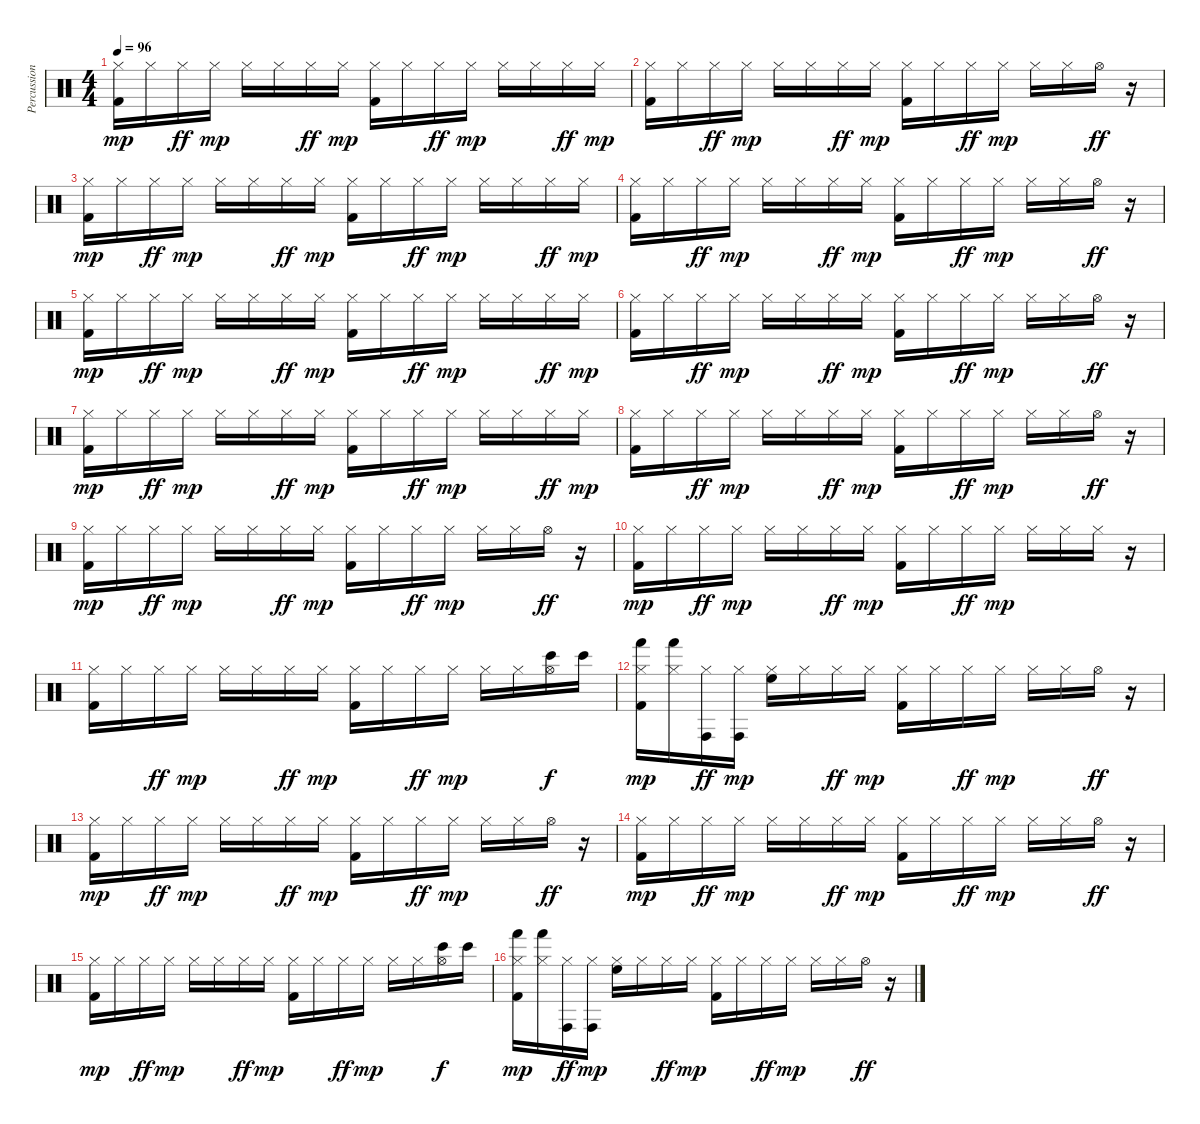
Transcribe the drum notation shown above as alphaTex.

\track ("Percussions" "Percussion") {instrument percussion}
\staff {score}
\articulation defaults
\ts (4 4)
\tempo 96
\clef neutral
\ks c
("Hi-Hat (closed)" "Kick (hit) 2").16{dy mp} "Hi-Hat (closed)".16 "Hi-Hat (closed)".16{dy ff} "Hi-Hat (closed)".16{dy mp} "Hi-Hat (closed)".16 "Hi-Hat (closed)".16 "Hi-Hat (closed)".16{dy ff} "Hi-Hat (closed)".16{dy mp} ("Hi-Hat (closed)" "Kick (hit) 2").16 "Hi-Hat (closed)".16 "Hi-Hat (closed)".16{dy ff} "Hi-Hat (closed)".16{dy mp} "Hi-Hat (closed)".16 "Hi-Hat (closed)".16 "Hi-Hat (closed)".16{dy ff} "Hi-Hat (closed)".16{dy mp} |
("Hi-Hat (closed)" "Kick (hit) 2").16 "Hi-Hat (closed)".16 "Hi-Hat (closed)".16{dy ff} "Hi-Hat (closed)".16{dy mp} "Hi-Hat (closed)".16 "Hi-Hat (closed)".16 "Hi-Hat (closed)".16{dy ff} "Hi-Hat (closed)".16{dy mp} ("Hi-Hat (closed)" "Kick (hit) 2").16 "Hi-Hat (closed)".16 "Hi-Hat (closed)".16{dy ff} "Hi-Hat (closed)".16{dy mp} "Hi-Hat (closed)".16 "Hi-Hat (closed)".16 "Hi-Hat (open)".16{dy ff} r.16 |
("Hi-Hat (closed)" "Kick (hit) 2").16{dy mp} "Hi-Hat (closed)".16 "Hi-Hat (closed)".16{dy ff} "Hi-Hat (closed)".16{dy mp} "Hi-Hat (closed)".16 "Hi-Hat (closed)".16 "Hi-Hat (closed)".16{dy ff} "Hi-Hat (closed)".16{dy mp} ("Hi-Hat (closed)" "Kick (hit) 2").16 "Hi-Hat (closed)".16 "Hi-Hat (closed)".16{dy ff} "Hi-Hat (closed)".16{dy mp} "Hi-Hat (closed)".16 "Hi-Hat (closed)".16 "Hi-Hat (closed)".16{dy ff} "Hi-Hat (closed)".16{dy mp} |
("Hi-Hat (closed)" "Kick (hit) 2").16 "Hi-Hat (closed)".16 "Hi-Hat (closed)".16{dy ff} "Hi-Hat (closed)".16{dy mp} "Hi-Hat (closed)".16 "Hi-Hat (closed)".16 "Hi-Hat (closed)".16{dy ff} "Hi-Hat (closed)".16{dy mp} ("Hi-Hat (closed)" "Kick (hit) 2").16 "Hi-Hat (closed)".16 "Hi-Hat (closed)".16{dy ff} "Hi-Hat (closed)".16{dy mp} "Hi-Hat (closed)".16 "Hi-Hat (closed)".16 "Hi-Hat (open)".16{dy ff} r.16 |
("Hi-Hat (closed)" "Kick (hit) 2").16{dy mp} "Hi-Hat (closed)".16 "Hi-Hat (closed)".16{dy ff} "Hi-Hat (closed)".16{dy mp} "Hi-Hat (closed)".16 "Hi-Hat (closed)".16 "Hi-Hat (closed)".16{dy ff} "Hi-Hat (closed)".16{dy mp} ("Hi-Hat (closed)" "Kick (hit) 2").16 "Hi-Hat (closed)".16 "Hi-Hat (closed)".16{dy ff} "Hi-Hat (closed)".16{dy mp} "Hi-Hat (closed)".16 "Hi-Hat (closed)".16 "Hi-Hat (closed)".16{dy ff} "Hi-Hat (closed)".16{dy mp} |
("Hi-Hat (closed)" "Kick (hit) 2").16 "Hi-Hat (closed)".16 "Hi-Hat (closed)".16{dy ff} "Hi-Hat (closed)".16{dy mp} "Hi-Hat (closed)".16 "Hi-Hat (closed)".16 "Hi-Hat (closed)".16{dy ff} "Hi-Hat (closed)".16{dy mp} ("Hi-Hat (closed)" "Kick (hit) 2").16 "Hi-Hat (closed)".16 "Hi-Hat (closed)".16{dy ff} "Hi-Hat (closed)".16{dy mp} "Hi-Hat (closed)".16 "Hi-Hat (closed)".16 "Hi-Hat (open)".16{dy ff} r.16 |
("Hi-Hat (closed)" "Kick (hit) 2").16{dy mp} "Hi-Hat (closed)".16 "Hi-Hat (closed)".16{dy ff} "Hi-Hat (closed)".16{dy mp} "Hi-Hat (closed)".16 "Hi-Hat (closed)".16 "Hi-Hat (closed)".16{dy ff} "Hi-Hat (closed)".16{dy mp} ("Hi-Hat (closed)" "Kick (hit) 2").16 "Hi-Hat (closed)".16 "Hi-Hat (closed)".16{dy ff} "Hi-Hat (closed)".16{dy mp} "Hi-Hat (closed)".16 "Hi-Hat (closed)".16 "Hi-Hat (closed)".16{dy ff} "Hi-Hat (closed)".16{dy mp} |
("Hi-Hat (closed)" "Kick (hit) 2").16 "Hi-Hat (closed)".16 "Hi-Hat (closed)".16{dy ff} "Hi-Hat (closed)".16{dy mp} "Hi-Hat (closed)".16 "Hi-Hat (closed)".16 "Hi-Hat (closed)".16{dy ff} "Hi-Hat (closed)".16{dy mp} ("Hi-Hat (closed)" "Kick (hit) 2").16 "Hi-Hat (closed)".16 "Hi-Hat (closed)".16{dy ff} "Hi-Hat (closed)".16{dy mp} "Hi-Hat (closed)".16 "Hi-Hat (closed)".16 "Hi-Hat (open)".16{dy ff} r.16 |
("Hi-Hat (closed)" "Kick (hit) 2").16{dy mp} "Hi-Hat (closed)".16 "Hi-Hat (closed)".16{dy ff} "Hi-Hat (closed)".16{dy mp} "Hi-Hat (closed)".16 "Hi-Hat (closed)".16 "Hi-Hat (closed)".16{dy ff} "Hi-Hat (closed)".16{dy mp} ("Hi-Hat (closed)" "Kick (hit) 2").16 "Hi-Hat (closed)".16 "Hi-Hat (closed)".16{dy ff} "Hi-Hat (closed)".16{dy mp} "Hi-Hat (closed)".16 "Hi-Hat (closed)".16 "Hi-Hat (open)".16{dy ff} r.16 |
("Hi-Hat (closed)" "Kick (hit) 2").16{dy mp} "Hi-Hat (closed)".16 "Hi-Hat (closed)".16{dy ff} "Hi-Hat (closed)".16{dy mp} "Hi-Hat (closed)".16 "Hi-Hat (closed)".16 "Hi-Hat (closed)".16{dy ff} "Hi-Hat (closed)".16{dy mp} ("Hi-Hat (closed)" "Kick (hit) 2").16 "Hi-Hat (closed)".16 "Hi-Hat (closed)".16{dy ff} "Hi-Hat (closed)".16{dy mp} "Hi-Hat (closed)".16 "Hi-Hat (closed)".16 "Hi-Hat (closed)".16 r.16 |
("Hi-Hat (closed)" "Kick (hit) 2").16 "Hi-Hat (closed)".16 "Hi-Hat (closed)".16{dy ff} "Hi-Hat (closed)".16{dy mp} "Hi-Hat (closed)".16 "Hi-Hat (closed)".16 "Hi-Hat (closed)".16{dy ff} "Hi-Hat (closed)".16{dy mp} ("Hi-Hat (closed)" "Kick (hit) 2").16 "Hi-Hat (closed)".16 "Hi-Hat (closed)".16{dy ff} "Hi-Hat (closed)".16{dy mp} "Hi-Hat (closed)".16 "Hi-Hat (closed)".16 ("Hi-Hat (open)" "Bongo High (hit)").16{dy f} "Bongo High (hit)".16 |
("Hi-Hat (closed)" "Hand (hit)" "Kick (hit) 2").16{dy mp} ("Hi-Hat (closed)" "Hand (hit)").16 ("Hi-Hat (closed)" "Conga high (hit)").16{dy ff} ("Hi-Hat (closed)" "Conga high (hit)").16{dy mp} ("Hi-Hat (closed)" "High Floor Tom (hit)").16 "Hi-Hat (closed)".16 "Hi-Hat (closed)".16{dy ff} "Hi-Hat (closed)".16{dy mp} ("Hi-Hat (closed)" "Kick (hit) 2").16 "Hi-Hat (closed)".16 "Hi-Hat (closed)".16{dy ff} "Hi-Hat (closed)".16{dy mp} "Hi-Hat (closed)".16 "Hi-Hat (closed)".16 "Hi-Hat (open)".16{dy ff} r.16 |
("Hi-Hat (closed)" "Kick (hit) 2").16{dy mp} "Hi-Hat (closed)".16 "Hi-Hat (closed)".16{dy ff} "Hi-Hat (closed)".16{dy mp} "Hi-Hat (closed)".16 "Hi-Hat (closed)".16 "Hi-Hat (closed)".16{dy ff} "Hi-Hat (closed)".16{dy mp} ("Hi-Hat (closed)" "Kick (hit) 2").16 "Hi-Hat (closed)".16 "Hi-Hat (closed)".16{dy ff} "Hi-Hat (closed)".16{dy mp} "Hi-Hat (closed)".16 "Hi-Hat (closed)".16 "Hi-Hat (open)".16{dy ff} r.16 |
("Hi-Hat (closed)" "Kick (hit) 2").16{dy mp} "Hi-Hat (closed)".16 "Hi-Hat (closed)".16{dy ff} "Hi-Hat (closed)".16{dy mp} "Hi-Hat (closed)".16 "Hi-Hat (closed)".16 "Hi-Hat (closed)".16{dy ff} "Hi-Hat (closed)".16{dy mp} ("Hi-Hat (closed)" "Kick (hit) 2").16 "Hi-Hat (closed)".16 "Hi-Hat (closed)".16{dy ff} "Hi-Hat (closed)".16{dy mp} "Hi-Hat (closed)".16 "Hi-Hat (closed)".16 "Hi-Hat (open)".16{dy ff} r.16 |
("Hi-Hat (closed)" "Kick (hit) 2").16{dy mp} "Hi-Hat (closed)".16 "Hi-Hat (closed)".16{dy ff} "Hi-Hat (closed)".16{dy mp} "Hi-Hat (closed)".16 "Hi-Hat (closed)".16 "Hi-Hat (closed)".16{dy ff} "Hi-Hat (closed)".16{dy mp} ("Hi-Hat (closed)" "Kick (hit) 2").16 "Hi-Hat (closed)".16 "Hi-Hat (closed)".16{dy ff} "Hi-Hat (closed)".16{dy mp} "Hi-Hat (closed)".16 "Hi-Hat (closed)".16 ("Hi-Hat (open)" "Bongo High (hit)").16{dy f} "Bongo High (hit)".16 |
("Hi-Hat (closed)" "Hand (hit)" "Kick (hit) 2").16{dy mp} ("Hi-Hat (closed)" "Hand (hit)").16 ("Hi-Hat (closed)" "Conga high (hit)").16{dy ff} ("Hi-Hat (closed)" "Conga high (hit)").16{dy mp} ("Hi-Hat (closed)" "High Floor Tom (hit)").16 "Hi-Hat (closed)".16 "Hi-Hat (closed)".16{dy ff} "Hi-Hat (closed)".16{dy mp} ("Hi-Hat (closed)" "Kick (hit) 2").16 "Hi-Hat (closed)".16 "Hi-Hat (closed)".16{dy ff} "Hi-Hat (closed)".16{dy mp} "Hi-Hat (closed)".16 "Hi-Hat (closed)".16 "Hi-Hat (open)".16{dy ff} r.16
